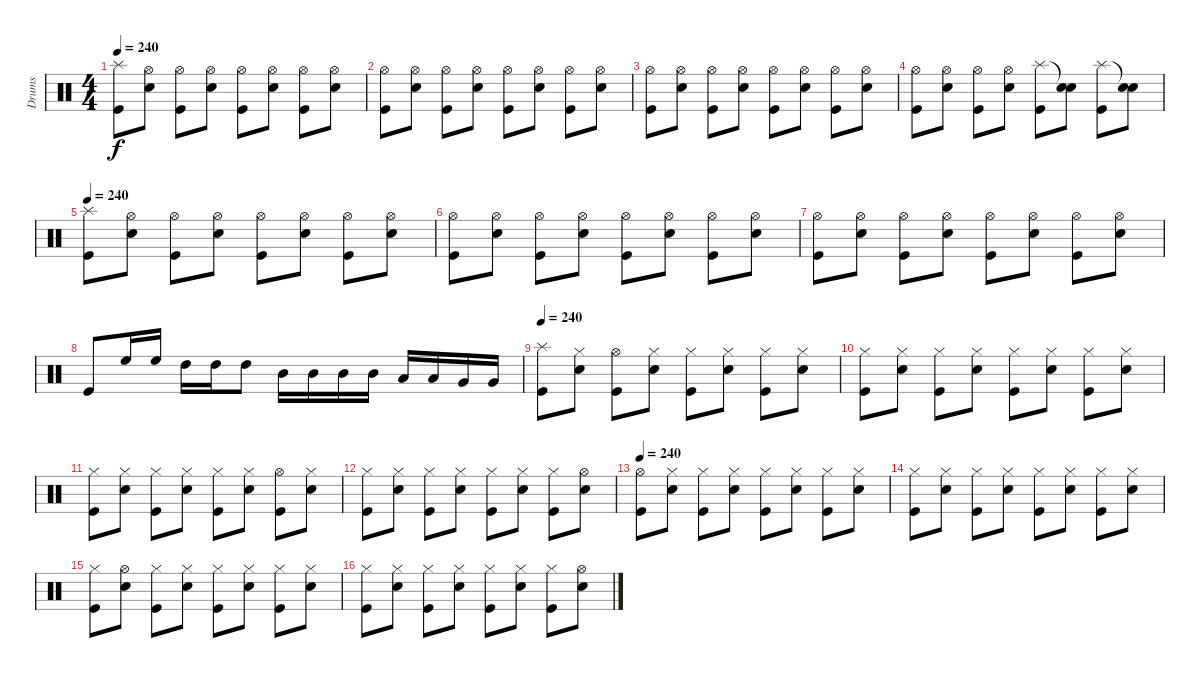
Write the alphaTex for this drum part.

\track ("Drums" "Drums") {instrument percussion}
\staff {score}
\articulation defaults
\ts (4 4)
\tempo 240
\clef neutral
\ks c
("Splash (hit)" "Kick (hit)").8{dy f} ("Hi-Hat (open)" "Electric Snare (hit)").8 ("Hi-Hat (open)" "Kick (hit)").8 ("Hi-Hat (open)" "Electric Snare (hit)").8 ("Hi-Hat (open)" "Kick (hit)").8 ("Hi-Hat (open)" "Electric Snare (hit)").8 ("Hi-Hat (open)" "Kick (hit)").8 ("Hi-Hat (open)" "Electric Snare (hit)").8 |
("Hi-Hat (open)" "Kick (hit)").8 ("Hi-Hat (open)" "Electric Snare (hit)").8 ("Hi-Hat (open)" "Kick (hit)").8 ("Hi-Hat (open)" "Electric Snare (hit)").8 ("Hi-Hat (open)" "Kick (hit)").8 ("Hi-Hat (open)" "Electric Snare (hit)").8 ("Hi-Hat (open)" "Kick (hit)").8 ("Hi-Hat (open)" "Electric Snare (hit)").8 |
("Hi-Hat (open)" "Kick (hit)").8 ("Hi-Hat (open)" "Electric Snare (hit)").8 ("Hi-Hat (open)" "Kick (hit)").8 ("Hi-Hat (open)" "Electric Snare (hit)").8 ("Hi-Hat (open)" "Kick (hit)").8 ("Hi-Hat (open)" "Electric Snare (hit)").8 ("Hi-Hat (open)" "Kick (hit)").8 ("Hi-Hat (open)" "Electric Snare (hit)").8 |
("Hi-Hat (open)" "Kick (hit)").8 ("Hi-Hat (open)" "Electric Snare (hit)").8 ("Hi-Hat (open)" "Kick (hit)").8 ("Hi-Hat (open)" "Electric Snare (hit)").8 ("Splash (hit)" "Kick (hit)").8 ("Snare (hit)"{t} "Electric Snare (hit)").8 ("Splash (hit)" "Kick (hit)").8 ("Snare (hit)"{t} "Electric Snare (hit)").8 |
\tempo 240
("Splash (hit)" "Kick (hit)").8 ("Hi-Hat (open)" "Electric Snare (hit)").8 ("Hi-Hat (open)" "Kick (hit)").8 ("Hi-Hat (open)" "Electric Snare (hit)").8 ("Hi-Hat (open)" "Kick (hit)").8 ("Hi-Hat (open)" "Electric Snare (hit)").8 ("Hi-Hat (open)" "Kick (hit)").8 ("Hi-Hat (open)" "Electric Snare (hit)").8 |
("Hi-Hat (open)" "Kick (hit)").8 ("Hi-Hat (open)" "Electric Snare (hit)").8 ("Hi-Hat (open)" "Kick (hit)").8 ("Hi-Hat (open)" "Electric Snare (hit)").8 ("Hi-Hat (open)" "Kick (hit)").8 ("Hi-Hat (open)" "Electric Snare (hit)").8 ("Hi-Hat (open)" "Kick (hit)").8 ("Hi-Hat (open)" "Electric Snare (hit)").8 |
("Hi-Hat (open)" "Kick (hit)").8 ("Hi-Hat (open)" "Electric Snare (hit)").8 ("Hi-Hat (open)" "Kick (hit)").8 ("Hi-Hat (open)" "Electric Snare (hit)").8 ("Hi-Hat (open)" "Kick (hit)").8 ("Hi-Hat (open)" "Electric Snare (hit)").8 ("Hi-Hat (open)" "Kick (hit)").8 ("Hi-Hat (open)" "Electric Snare (hit)").8 |
"Kick (hit)".8 "High Floor Tom (hit)".16 "High Floor Tom (hit)".16 "High Tom (hit)".16 "High Tom (hit)".16 "High Tom (hit)".8 "Mid Tom (hit)".16 "Mid Tom (hit)".16 "Mid Tom (hit)".16 "Mid Tom (hit)".16 "Low Tom (hit)".16 "Low Tom (hit)".16 "Very Low Tom (hit)".16 "Very Low Tom (hit)".16 |
\tempo 240
("Splash (hit)" "Kick (hit)").8 ("Hi-Hat (closed)" "Electric Snare (hit)").8 ("Hi-Hat (open)" "Kick (hit)").8 ("Hi-Hat (closed)" "Electric Snare (hit)").8 ("Hi-Hat (closed)" "Kick (hit)").8 ("Hi-Hat (closed)" "Electric Snare (hit)").8 ("Hi-Hat (closed)" "Kick (hit)").8 ("Hi-Hat (closed)" "Electric Snare (hit)").8 |
("Hi-Hat (closed)" "Kick (hit)").8 ("Hi-Hat (closed)" "Electric Snare (hit)").8 ("Hi-Hat (closed)" "Kick (hit)").8 ("Hi-Hat (closed)" "Electric Snare (hit)").8 ("Hi-Hat (closed)" "Kick (hit)").8 ("Hi-Hat (closed)" "Electric Snare (hit)").8 ("Hi-Hat (closed)" "Kick (hit)").8 ("Hi-Hat (closed)" "Electric Snare (hit)").8 |
("Hi-Hat (closed)" "Kick (hit)").8 ("Hi-Hat (closed)" "Electric Snare (hit)").8 ("Hi-Hat (closed)" "Kick (hit)").8 ("Hi-Hat (closed)" "Electric Snare (hit)").8 ("Hi-Hat (closed)" "Kick (hit)").8 ("Hi-Hat (closed)" "Electric Snare (hit)").8 ("Hi-Hat (open)" "Kick (hit)").8 ("Hi-Hat (closed)" "Electric Snare (hit)").8 |
("Hi-Hat (closed)" "Kick (hit)").8 ("Hi-Hat (closed)" "Electric Snare (hit)").8 ("Hi-Hat (closed)" "Kick (hit)").8 ("Hi-Hat (closed)" "Electric Snare (hit)").8 ("Hi-Hat (closed)" "Kick (hit)").8 ("Hi-Hat (closed)" "Electric Snare (hit)").8 ("Hi-Hat (closed)" "Kick (hit)").8 ("Hi-Hat (open)" "Electric Snare (hit)").8 |
\tempo 240
("Hi-Hat (open)" "Kick (hit)").8 ("Hi-Hat (closed)" "Electric Snare (hit)").8 ("Hi-Hat (closed)" "Kick (hit)").8 ("Hi-Hat (closed)" "Electric Snare (hit)").8 ("Hi-Hat (closed)" "Kick (hit)").8 ("Hi-Hat (closed)" "Electric Snare (hit)").8 ("Hi-Hat (closed)" "Kick (hit)").8 ("Hi-Hat (closed)" "Electric Snare (hit)").8 |
("Hi-Hat (closed)" "Kick (hit)").8 ("Hi-Hat (closed)" "Electric Snare (hit)").8 ("Hi-Hat (closed)" "Kick (hit)").8 ("Hi-Hat (closed)" "Electric Snare (hit)").8 ("Hi-Hat (closed)" "Kick (hit)").8 ("Hi-Hat (closed)" "Electric Snare (hit)").8 ("Hi-Hat (closed)" "Kick (hit)").8 ("Hi-Hat (closed)" "Electric Snare (hit)").8 |
("Hi-Hat (closed)" "Kick (hit)").8 ("Hi-Hat (open)" "Electric Snare (hit)").8 ("Hi-Hat (closed)" "Kick (hit)").8 ("Hi-Hat (closed)" "Electric Snare (hit)").8 ("Hi-Hat (closed)" "Kick (hit)").8 ("Hi-Hat (closed)" "Electric Snare (hit)").8 ("Hi-Hat (closed)" "Kick (hit)").8 ("Hi-Hat (closed)" "Electric Snare (hit)").8 |
("Hi-Hat (closed)" "Kick (hit)").8 ("Hi-Hat (closed)" "Electric Snare (hit)").8 ("Hi-Hat (closed)" "Kick (hit)").8 ("Hi-Hat (closed)" "Electric Snare (hit)").8 ("Hi-Hat (closed)" "Kick (hit)").8 ("Hi-Hat (closed)" "Electric Snare (hit)").8 ("Hi-Hat (closed)" "Kick (hit)").8 ("Hi-Hat (open)" "Electric Snare (hit)").8
